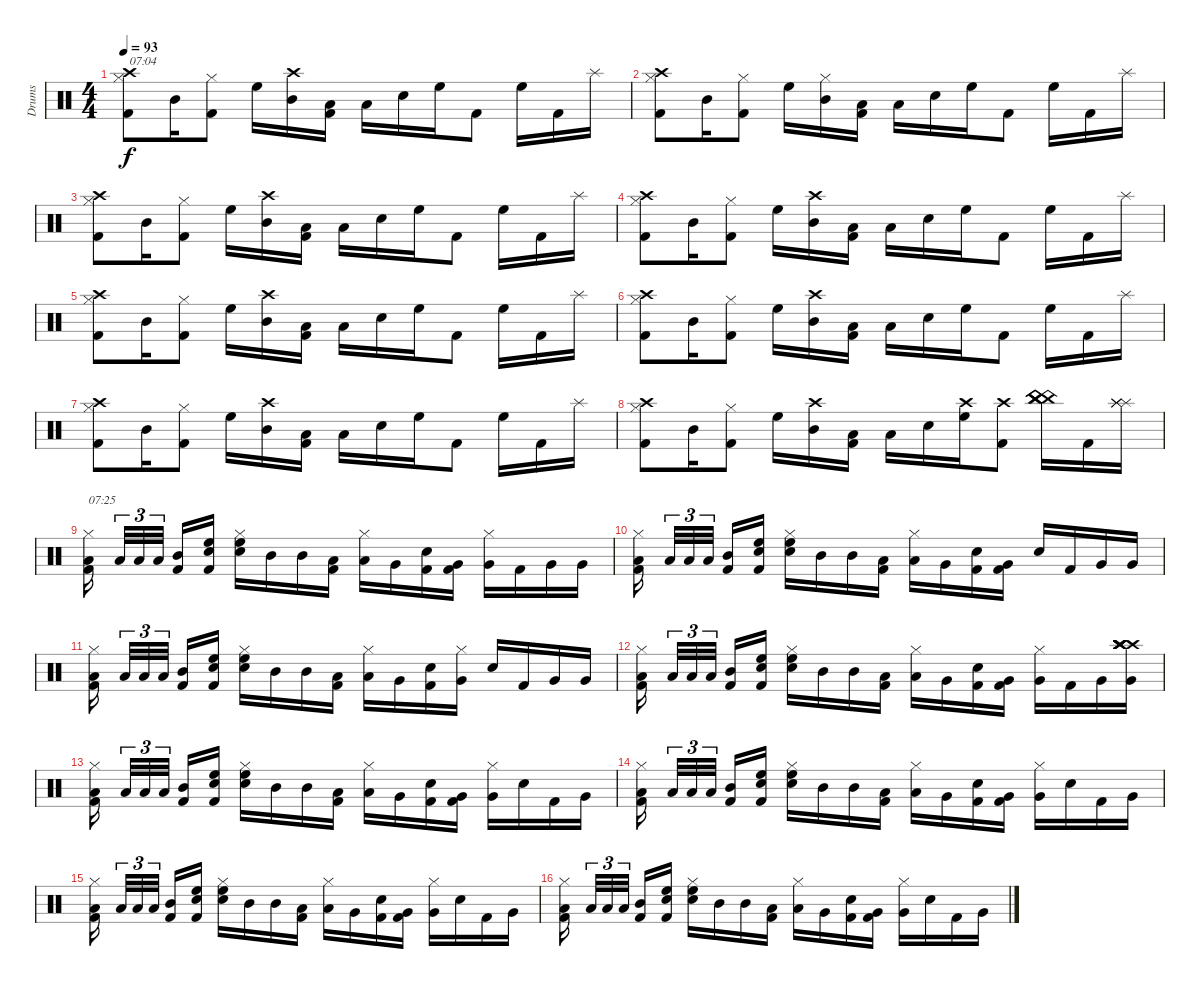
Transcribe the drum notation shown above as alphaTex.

\track ("Drums" "Drums") {instrument percussion}
\staff {score}
\articulation defaults
\ts (4 4)
\tempo 93
\clef neutral
\ks c
("Crash high (hit)" "Hi-Hat (closed)" "Kick (hit) 2").8{txt "07:04" dy f} "Mid Tom (hit)".16 ("Hi-Hat (closed)" "Kick (hit) 2").8 "High Floor Tom (hit)".16 ("Crash high (hit)" "Mid Tom (hit)").16 ("Low Tom (hit)" "Kick (hit) 2").16 "Low Tom (hit)".16 "Snare (hit) 2".16 "High Floor Tom (hit)".16 "Kick (hit) 2".8 "High Floor Tom (hit)".16 "Kick (hit) 2".16 "Splash (hit)".16 |
("Crash high (hit)" "Hi-Hat (closed)" "Kick (hit) 2").8 "Mid Tom (hit)".16 ("Hi-Hat (closed)" "Kick (hit) 2").8 "High Floor Tom (hit)".16 ("Hi-Hat (closed)" "Mid Tom (hit)").16 ("Low Tom (hit)" "Kick (hit) 2").16 "Low Tom (hit)".16 "Snare (hit) 2".16 "High Floor Tom (hit)".16 "Kick (hit) 2".8 "High Floor Tom (hit)".16 "Kick (hit) 2".16 "Splash (hit)".16 |
("Crash high (hit)" "Hi-Hat (closed)" "Kick (hit) 2").8 "Mid Tom (hit)".16 ("Hi-Hat (closed)" "Kick (hit) 2").8 "High Floor Tom (hit)".16 ("Crash high (hit)" "Mid Tom (hit)").16 ("Low Tom (hit)" "Kick (hit) 2").16 "Low Tom (hit)".16 "Snare (hit) 2".16 "High Floor Tom (hit)".16 "Kick (hit) 2".8 "High Floor Tom (hit)".16 "Kick (hit) 2".16 "Splash (hit)".16 |
("Crash high (hit)" "Hi-Hat (closed)" "Kick (hit) 2").8 "Mid Tom (hit)".16 ("Hi-Hat (closed)" "Kick (hit) 2").8 "High Floor Tom (hit)".16 ("Crash high (hit)" "Mid Tom (hit)").16 ("Low Tom (hit)" "Kick (hit) 2").16 "Low Tom (hit)".16 "Snare (hit) 2".16 "High Floor Tom (hit)".16 "Kick (hit) 2".8 "High Floor Tom (hit)".16 "Kick (hit) 2".16 "Splash (hit)".16 |
("Crash high (hit)" "Hi-Hat (closed)" "Kick (hit) 2").8 "Mid Tom (hit)".16 ("Hi-Hat (closed)" "Kick (hit) 2").8 "High Floor Tom (hit)".16 ("Crash high (hit)" "Mid Tom (hit)").16 ("Low Tom (hit)" "Kick (hit) 2").16 "Low Tom (hit)".16 "Snare (hit) 2".16 "High Floor Tom (hit)".16 "Kick (hit) 2".8 "High Floor Tom (hit)".16 "Kick (hit) 2".16 "Splash (hit)".16 |
("Crash high (hit)" "Hi-Hat (closed)" "Kick (hit) 2").8 "Mid Tom (hit)".16 ("Hi-Hat (closed)" "Kick (hit) 2").8 "High Floor Tom (hit)".16 ("Crash high (hit)" "Mid Tom (hit)").16 ("Low Tom (hit)" "Kick (hit) 2").16 "Low Tom (hit)".16 "Snare (hit) 2".16 "High Floor Tom (hit)".16 "Kick (hit) 2".8 "High Floor Tom (hit)".16 "Kick (hit) 2".16 "Splash (hit)".16 |
("Crash high (hit)" "Hi-Hat (closed)" "Kick (hit) 2").8 "Mid Tom (hit)".16 ("Hi-Hat (closed)" "Kick (hit) 2").8 "High Floor Tom (hit)".16 ("Crash high (hit)" "Mid Tom (hit)").16 ("Low Tom (hit)" "Kick (hit) 2").16 "Low Tom (hit)".16 "Snare (hit) 2".16 "High Floor Tom (hit)".16 "Kick (hit) 2".8 "High Floor Tom (hit)".16 "Kick (hit) 2".16 "Splash (hit)".16 |
("Crash high (hit)" "Hi-Hat (closed)" "Kick (hit) 2").8 "Mid Tom (hit)".16 ("Hi-Hat (closed)" "Kick (hit) 2").8 "High Floor Tom (hit)".16 ("Crash high (hit)" "Mid Tom (hit)").16 ("Low Tom (hit)" "Kick (hit) 2").16 "Low Tom (hit)".16 "Snare (hit) 2".16 ("Crash high (hit)" "High Floor Tom (hit)").16 ("Crash high (hit)" "Kick (hit) 2").8 ("China (hit)" "China (hit)" "China (hit)" "China (hit)").16 "Kick (hit) 2".16 ("Splash (hit)" "Splash (hit)" "Splash (hit)" "Splash (hit)").16 |
("Hi-Hat (closed)" "Low Floor Tom (hit)" "Kick (hit) 2").16{txt "07:25"} "Low Floor Tom (hit)".32{tu (3 2)} "Low Floor Tom (hit)".32{tu (3 2)} "Low Floor Tom (hit)".32{tu (3 2)} ("Mid Tom (hit)" "Kick (hit) 2").16 ("High Floor Tom (hit)" "Snare (hit) 2" "Kick (hit) 2").16 ("High Floor Tom (hit)" "Hi-Hat (closed)" "Snare (hit) 2").16 "Mid Tom (hit)".16 "Mid Tom (hit)".16 ("Low Tom (hit)" "Kick (hit) 2").16 ("Hi-Hat (closed)" "Low Floor Tom (hit)").16 "Very Low Tom (hit)".16 ("Snare (hit) 2" "Kick (hit) 2").16 ("Very Low Tom (hit)" "Kick (hit) 2").16 ("Hi-Hat (closed)" "Very Low Tom (hit)").16 "Kick (hit) 2".16 "Very Low Tom (hit)".16 "Very Low Tom (hit)".16 |
("Hi-Hat (closed)" "Low Floor Tom (hit)" "Kick (hit) 2").16 "Low Floor Tom (hit)".32{tu (3 2)} "Low Floor Tom (hit)".32{tu (3 2)} "Low Floor Tom (hit)".32{tu (3 2)} ("Mid Tom (hit)" "Kick (hit) 2").16 ("High Floor Tom (hit)" "Snare (hit) 2" "Kick (hit) 2").16 ("High Floor Tom (hit)" "Hi-Hat (closed)" "Snare (hit) 2").16 "Mid Tom (hit)".16 "Mid Tom (hit)".16 ("Low Tom (hit)" "Kick (hit) 2").16 ("Hi-Hat (closed)" "Low Floor Tom (hit)").16 "Very Low Tom (hit)".16 ("Snare (hit) 2" "Kick (hit) 2").16 ("Very Low Tom (hit)" "Kick (hit) 2").16 "Snare (hit) 2".16 "Kick (hit) 2".16 "Very Low Tom (hit)".16 "Very Low Tom (hit)".16 |
("Hi-Hat (closed)" "Low Floor Tom (hit)" "Kick (hit) 2").16 "Low Floor Tom (hit)".32{tu (3 2)} "Low Floor Tom (hit)".32{tu (3 2)} "Low Floor Tom (hit)".32{tu (3 2)} ("Mid Tom (hit)" "Kick (hit) 2").16 ("High Floor Tom (hit)" "Snare (hit) 2" "Kick (hit) 2").16 ("High Floor Tom (hit)" "Hi-Hat (closed)" "Snare (hit) 2").16 "Mid Tom (hit)".16 "Mid Tom (hit)".16 ("Low Tom (hit)" "Kick (hit) 2").16 ("Hi-Hat (closed)" "Low Floor Tom (hit)").16 "Very Low Tom (hit)".16 ("Snare (hit) 2" "Kick (hit) 2").16 ("Hi-Hat (closed)" "Very Low Tom (hit)").16 "Snare (hit) 2".16 "Kick (hit) 2".16 "Very Low Tom (hit)".16 "Very Low Tom (hit)".16 |
("Hi-Hat (closed)" "Low Floor Tom (hit)" "Kick (hit) 2").16 "Low Floor Tom (hit)".32{tu (3 2)} "Low Floor Tom (hit)".32{tu (3 2)} "Low Floor Tom (hit)".32{tu (3 2)} ("Mid Tom (hit)" "Kick (hit) 2").16 ("High Floor Tom (hit)" "Snare (hit) 2" "Kick (hit) 2").16 ("High Floor Tom (hit)" "Hi-Hat (closed)" "Snare (hit) 2").16 "Mid Tom (hit)".16 "Mid Tom (hit)".16 ("Low Tom (hit)" "Kick (hit) 2").16 ("Hi-Hat (closed)" "Low Floor Tom (hit)").16 "Very Low Tom (hit)".16 ("Snare (hit) 2" "Kick (hit) 2").16 ("Very Low Tom (hit)" "Kick (hit) 2").16 ("Hi-Hat (closed)" "Very Low Tom (hit)").16 "Kick (hit) 2".16 "Very Low Tom (hit)".16 ("Crash high (hit)" "Crash high (hit)" "Crash high (hit)" "Very Low Tom (hit)" "Crash high (hit)" "Crash high (hit)").16 |
("Hi-Hat (closed)" "Low Floor Tom (hit)" "Kick (hit) 2").16 "Low Floor Tom (hit)".32{tu (3 2)} "Low Floor Tom (hit)".32{tu (3 2)} "Low Floor Tom (hit)".32{tu (3 2)} ("Mid Tom (hit)" "Kick (hit) 2").16 ("High Floor Tom (hit)" "Snare (hit) 2" "Kick (hit) 2").16 ("High Floor Tom (hit)" "Hi-Hat (closed)" "Snare (hit) 2").16 "Mid Tom (hit)".16 "Mid Tom (hit)".16 ("Low Tom (hit)" "Kick (hit) 2").16 ("Hi-Hat (closed)" "Low Floor Tom (hit)").16 "Very Low Tom (hit)".16 ("Snare (hit) 2" "Kick (hit) 2").16 ("Very Low Tom (hit)" "Kick (hit) 2").16 ("Hi-Hat (closed)" "Very Low Tom (hit)").16 "Snare (hit) 2".16 "Kick (hit) 2".16 "Very Low Tom (hit)".16 |
("Hi-Hat (closed)" "Low Floor Tom (hit)" "Kick (hit) 2").16 "Low Floor Tom (hit)".32{tu (3 2)} "Low Floor Tom (hit)".32{tu (3 2)} "Low Floor Tom (hit)".32{tu (3 2)} ("Mid Tom (hit)" "Kick (hit) 2").16 ("High Floor Tom (hit)" "Snare (hit) 2" "Kick (hit) 2").16 ("High Floor Tom (hit)" "Hi-Hat (closed)" "Snare (hit) 2").16 "Mid Tom (hit)".16 "Mid Tom (hit)".16 ("Low Tom (hit)" "Kick (hit) 2").16 ("Hi-Hat (closed)" "Low Floor Tom (hit)").16 "Very Low Tom (hit)".16 ("Snare (hit) 2" "Kick (hit) 2").16 ("Very Low Tom (hit)" "Kick (hit) 2").16 ("Hi-Hat (closed)" "Very Low Tom (hit)").16 "Snare (hit) 2".16 "Kick (hit) 2".16 "Very Low Tom (hit)".16 |
("Hi-Hat (closed)" "Low Floor Tom (hit)" "Kick (hit) 2").16 "Low Floor Tom (hit)".32{tu (3 2)} "Low Floor Tom (hit)".32{tu (3 2)} "Low Floor Tom (hit)".32{tu (3 2)} ("Mid Tom (hit)" "Kick (hit) 2").16 ("High Floor Tom (hit)" "Snare (hit) 2" "Kick (hit) 2").16 ("High Floor Tom (hit)" "Hi-Hat (closed)" "Snare (hit) 2").16 "Mid Tom (hit)".16 "Mid Tom (hit)".16 ("Low Tom (hit)" "Kick (hit) 2").16 ("Hi-Hat (closed)" "Low Floor Tom (hit)").16 "Very Low Tom (hit)".16 ("Snare (hit) 2" "Kick (hit) 2").16 ("Very Low Tom (hit)" "Kick (hit) 2").16 ("Hi-Hat (closed)" "Very Low Tom (hit)").16 "Snare (hit) 2".16 "Kick (hit) 2".16 "Very Low Tom (hit)".16 |
("Hi-Hat (closed)" "Low Floor Tom (hit)" "Kick (hit) 2").16 "Low Floor Tom (hit)".32{tu (3 2)} "Low Floor Tom (hit)".32{tu (3 2)} "Low Floor Tom (hit)".32{tu (3 2)} ("Mid Tom (hit)" "Kick (hit) 2").16 ("High Floor Tom (hit)" "Snare (hit) 2" "Kick (hit) 2").16 ("High Floor Tom (hit)" "Hi-Hat (closed)" "Snare (hit) 2").16 "Mid Tom (hit)".16 "Mid Tom (hit)".16 ("Low Tom (hit)" "Kick (hit) 2").16 ("Hi-Hat (closed)" "Low Floor Tom (hit)").16 "Very Low Tom (hit)".16 ("Snare (hit) 2" "Kick (hit) 2").16 ("Very Low Tom (hit)" "Kick (hit) 2").16 ("Hi-Hat (closed)" "Very Low Tom (hit)").16 "Snare (hit) 2".16 "Kick (hit) 2".16 "Very Low Tom (hit)".16
